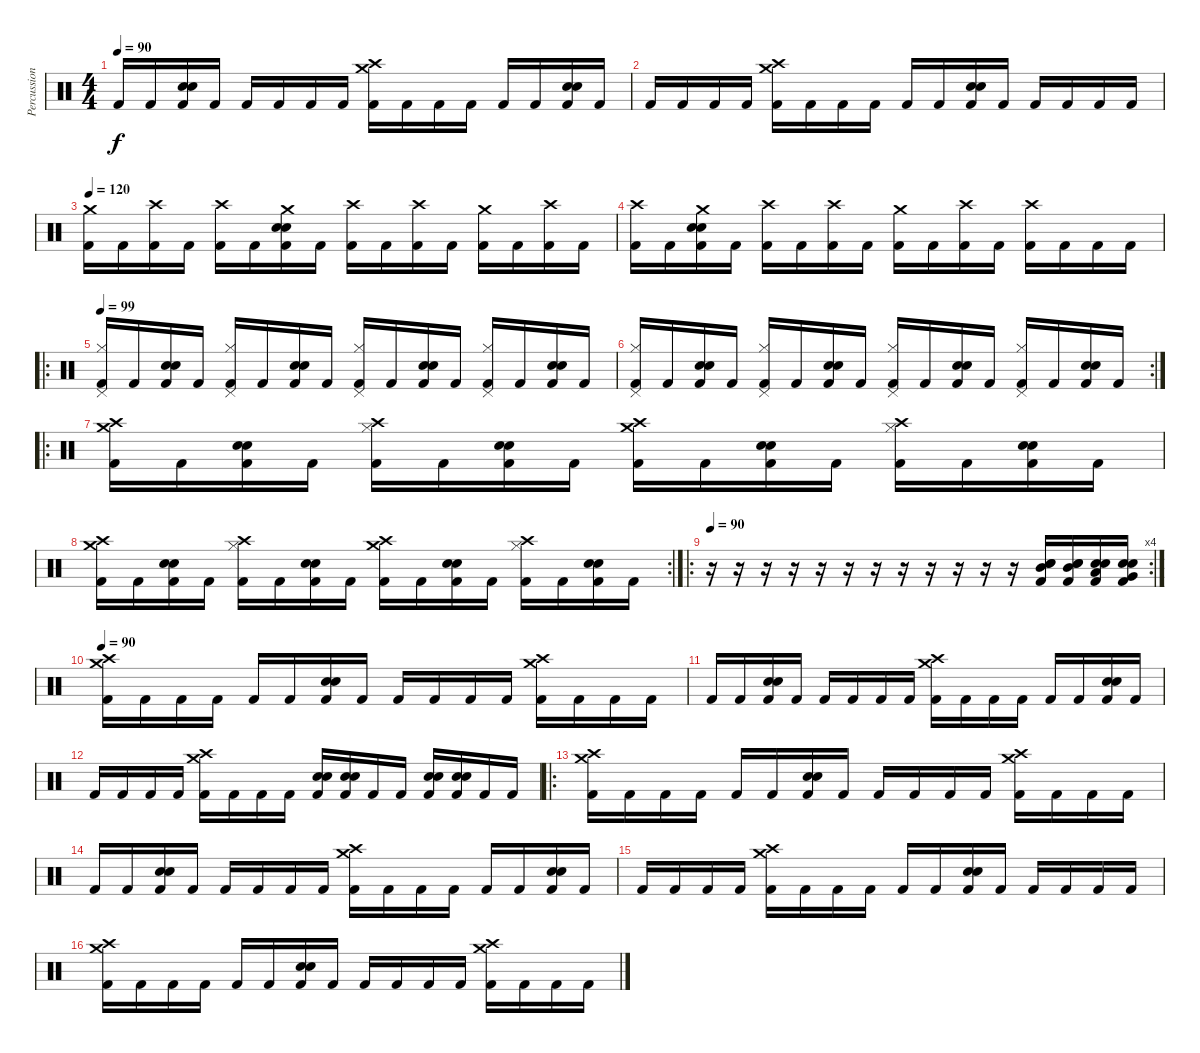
\track ("Percussions" "Percussion") {instrument percussion}
\staff {score}
\articulation defaults
\ts (4 4)
\tempo 90
\clef neutral
\ks c "Kick (hit) 2".16{dy f} "Kick (hit) 2".16
("Electric Snare (hit)" "Snare (hit) 2" "Kick (hit) 2").16 "Kick (hit) 2".16 "Kick (hit) 2".16 "Kick (hit) 2".16 "Kick (hit) 2".16 "Kick (hit) 2".16 ("Crash medium (hit)" "Crash high (hit)" "Kick (hit) 2").16 "Kick (hit) 2".16 "Kick (hit) 2".16 "Kick (hit) 2".16 "Kick (hit) 2".16 "Kick (hit) 2".16 ("Electric Snare (hit)" "Snare (hit) 2" "Kick (hit) 2").16 "Kick (hit) 2".16 |
"Kick (hit) 2".16 "Kick (hit) 2".16 "Kick (hit) 2".16 "Kick (hit) 2".16 ("Crash medium (hit)" "Crash high (hit)" "Kick (hit) 2").16 "Kick (hit) 2".16 "Kick (hit) 2".16 "Kick (hit) 2".16 "Kick (hit) 2".16 "Kick (hit) 2".16 ("Electric Snare (hit)" "Snare (hit) 2" "Kick (hit) 2").16 "Kick (hit) 2".16 "Kick (hit) 2".16 "Kick (hit) 2".16 "Kick (hit) 2".16 "Kick (hit) 2".16 |
\tempo 120
("Crash medium (hit)" "Kick (hit) 2").16 "Kick (hit) 2".16 ("Crash high (hit)" "Kick (hit) 2").16 "Kick (hit) 2".16 ("Crash high (hit)" "Kick (hit) 2").16 "Kick (hit) 2".16 ("Crash medium (hit)" "Electric Snare (hit)" "Snare (hit) 2" "Kick (hit) 2").16 "Kick (hit) 2".16 ("Crash high (hit)" "Kick (hit) 2").16 "Kick (hit) 2".16 ("Crash high (hit)" "Kick (hit) 2").16 "Kick (hit) 2".16 ("Crash medium (hit)" "Kick (hit) 2").16 "Kick (hit) 2".16 ("Crash high (hit)" "Kick (hit) 2").16 "Kick (hit) 2".16 |
("Crash high (hit)" "Kick (hit) 2").16 "Kick (hit) 2".16 ("Crash medium (hit)" "Electric Snare (hit)" "Snare (hit) 2" "Kick (hit) 2").16 "Kick (hit) 2".16 ("Crash high (hit)" "Kick (hit) 2").16 "Kick (hit) 2".16 ("Crash high (hit)" "Kick (hit) 2").16 "Kick (hit) 2".16 ("Crash medium (hit)" "Kick (hit) 2").16 "Kick (hit) 2".16 ("Crash high (hit)" "Kick (hit) 2").16 "Kick (hit) 2".16 ("Crash high (hit)" "Kick (hit) 2").16 "Kick (hit) 2".16 "Kick (hit) 2".16 "Kick (hit) 2".16 |
\ro
\tempo 99
("Hi-Hat (closed)" "Pedal Hi-Hat (hit)" "Kick (hit) 2").16 "Kick (hit) 2".16 ("Snare (hit) 2" "Electric Snare (hit)" "Kick (hit) 2").16 "Kick (hit) 2".16 ("Hi-Hat (closed)" "Pedal Hi-Hat (hit)" "Kick (hit) 2").16 "Kick (hit) 2".16 ("Snare (hit) 2" "Electric Snare (hit)" "Kick (hit) 2").16 "Kick (hit) 2".16 ("Hi-Hat (closed)" "Pedal Hi-Hat (hit)" "Kick (hit) 2").16 "Kick (hit) 2".16 ("Snare (hit) 2" "Electric Snare (hit)" "Kick (hit) 2").16 "Kick (hit) 2".16 ("Hi-Hat (closed)" "Pedal Hi-Hat (hit)" "Kick (hit) 2").16 "Kick (hit) 2".16 ("Snare (hit) 2" "Electric Snare (hit)" "Kick (hit) 2").16 "Kick (hit) 2".16 |
\rc 2
("Hi-Hat (closed)" "Pedal Hi-Hat (hit)" "Kick (hit) 2").16 "Kick (hit) 2".16 ("Snare (hit) 2" "Electric Snare (hit)" "Kick (hit) 2").16 "Kick (hit) 2".16 ("Hi-Hat (closed)" "Pedal Hi-Hat (hit)" "Kick (hit) 2").16 "Kick (hit) 2".16 ("Snare (hit) 2" "Electric Snare (hit)" "Kick (hit) 2").16 "Kick (hit) 2".16 ("Hi-Hat (closed)" "Pedal Hi-Hat (hit)" "Kick (hit) 2").16 "Kick (hit) 2".16 ("Snare (hit) 2" "Electric Snare (hit)" "Kick (hit) 2").16 "Kick (hit) 2".16 ("Hi-Hat (closed)" "Pedal Hi-Hat (hit)" "Kick (hit) 2").16 "Kick (hit) 2".16 ("Snare (hit) 2" "Electric Snare (hit)" "Kick (hit) 2").16 "Kick (hit) 2".16 |
\ro
("Crash medium (hit)" "Crash high (hit)" "Kick (hit) 2").16 "Kick (hit) 2".16 ("Snare (hit) 2" "Electric Snare (hit)" "Kick (hit) 2").16 "Kick (hit) 2".16 ("Hi-Hat (closed)" "Crash high (hit)" "Kick (hit) 2").16 "Kick (hit) 2".16 ("Snare (hit) 2" "Electric Snare (hit)" "Kick (hit) 2").16 "Kick (hit) 2".16 ("Crash medium (hit)" "Crash high (hit)" "Kick (hit) 2").16 "Kick (hit) 2".16 ("Snare (hit) 2" "Electric Snare (hit)" "Kick (hit) 2").16 "Kick (hit) 2".16 ("Hi-Hat (closed)" "Crash high (hit)" "Kick (hit) 2").16 "Kick (hit) 2".16 ("Snare (hit) 2" "Electric Snare (hit)" "Kick (hit) 2").16 "Kick (hit) 2".16 |
\rc 2
("Crash medium (hit)" "Crash high (hit)" "Kick (hit) 2").16 "Kick (hit) 2".16 ("Snare (hit) 2" "Electric Snare (hit)" "Kick (hit) 2").16 "Kick (hit) 2".16 ("Hi-Hat (closed)" "Crash high (hit)" "Kick (hit) 2").16 "Kick (hit) 2".16 ("Snare (hit) 2" "Electric Snare (hit)" "Kick (hit) 2").16 "Kick (hit) 2".16 ("Crash medium (hit)" "Crash high (hit)" "Kick (hit) 2").16 "Kick (hit) 2".16 ("Snare (hit) 2" "Electric Snare (hit)" "Kick (hit) 2").16 "Kick (hit) 2".16 ("Hi-Hat (closed)" "Crash high (hit)" "Kick (hit) 2").16 "Kick (hit) 2".16 ("Snare (hit) 2" "Electric Snare (hit)" "Kick (hit) 2").16 "Kick (hit) 2".16 |
\ro
\rc 4
\tempo 90
r.16 r.16 r.16 r.16 r.16 r.16 r.16 r.16 r.16 r.16 r.16 r.16 ("Kick (hit) 2" "Snare (hit) 2" "Mid Tom (hit)" "Electric Snare (hit)").16 ("Kick (hit) 2" "Snare (hit) 2" "Mid Tom (hit)" "Electric Snare (hit)").16 ("Kick (hit) 2" "Snare (hit) 2" "Low Tom (hit)" "Electric Snare (hit)").16 ("Kick (hit) 2" "Snare (hit) 2" "Very Low Tom (hit)" "Electric Snare (hit)").16 |
\tempo 90
("Crash medium (hit)" "Crash high (hit)" "Kick (hit) 2").16 "Kick (hit) 2".16 "Kick (hit) 2".16 "Kick (hit) 2".16 "Kick (hit) 2".16 "Kick (hit) 2".16 ("Electric Snare (hit)" "Snare (hit) 2" "Kick (hit) 2").16 "Kick (hit) 2".16 "Kick (hit) 2".16 "Kick (hit) 2".16 "Kick (hit) 2".16 "Kick (hit) 2".16 ("Crash medium (hit)" "Crash high (hit)" "Kick (hit) 2").16 "Kick (hit) 2".16 "Kick (hit) 2".16 "Kick (hit) 2".16 |
"Kick (hit) 2".16 "Kick (hit) 2".16 ("Electric Snare (hit)" "Snare (hit) 2" "Kick (hit) 2").16 "Kick (hit) 2".16 "Kick (hit) 2".16 "Kick (hit) 2".16 "Kick (hit) 2".16 "Kick (hit) 2".16 ("Crash medium (hit)" "Crash high (hit)" "Kick (hit) 2").16 "Kick (hit) 2".16 "Kick (hit) 2".16 "Kick (hit) 2".16 "Kick (hit) 2".16 "Kick (hit) 2".16 ("Electric Snare (hit)" "Snare (hit) 2" "Kick (hit) 2").16 "Kick (hit) 2".16 |
"Kick (hit) 2".16 "Kick (hit) 2".16 "Kick (hit) 2".16 "Kick (hit) 2".16 ("Crash medium (hit)" "Crash high (hit)" "Kick (hit) 2").16 "Kick (hit) 2".16 "Kick (hit) 2".16 "Kick (hit) 2".16 ("Electric Snare (hit)" "Snare (hit) 2" "Kick (hit) 2").16 ("Electric Snare (hit)" "Snare (hit) 2" "Kick (hit) 2").16 "Kick (hit) 2".16 "Kick (hit) 2".16 ("Electric Snare (hit)" "Snare (hit) 2" "Kick (hit) 2").16 ("Electric Snare (hit)" "Snare (hit) 2" "Kick (hit) 2").16 "Kick (hit) 2".16 "Kick (hit) 2".16 |
\ro
("Crash medium (hit)" "Crash high (hit)" "Kick (hit) 2").16 "Kick (hit) 2".16 "Kick (hit) 2".16 "Kick (hit) 2".16 "Kick (hit) 2".16 "Kick (hit) 2".16 ("Electric Snare (hit)" "Snare (hit) 2" "Kick (hit) 2").16 "Kick (hit) 2".16 "Kick (hit) 2".16 "Kick (hit) 2".16 "Kick (hit) 2".16 "Kick (hit) 2".16 ("Crash medium (hit)" "Crash high (hit)" "Kick (hit) 2").16 "Kick (hit) 2".16 "Kick (hit) 2".16 "Kick (hit) 2".16 |
"Kick (hit) 2".16 "Kick (hit) 2".16 ("Electric Snare (hit)" "Snare (hit) 2" "Kick (hit) 2").16 "Kick (hit) 2".16 "Kick (hit) 2".16 "Kick (hit) 2".16 "Kick (hit) 2".16 "Kick (hit) 2".16 ("Crash medium (hit)" "Crash high (hit)" "Kick (hit) 2").16 "Kick (hit) 2".16 "Kick (hit) 2".16 "Kick (hit) 2".16 "Kick (hit) 2".16 "Kick (hit) 2".16 ("Electric Snare (hit)" "Snare (hit) 2" "Kick (hit) 2").16 "Kick (hit) 2".16 |
"Kick (hit) 2".16 "Kick (hit) 2".16 "Kick (hit) 2".16 "Kick (hit) 2".16 ("Crash medium (hit)" "Crash high (hit)" "Kick (hit) 2").16 "Kick (hit) 2".16 "Kick (hit) 2".16 "Kick (hit) 2".16 "Kick (hit) 2".16 "Kick (hit) 2".16 ("Electric Snare (hit)" "Snare (hit) 2" "Kick (hit) 2").16 "Kick (hit) 2".16 "Kick (hit) 2".16 "Kick (hit) 2".16 "Kick (hit) 2".16 "Kick (hit) 2".16 |
("Crash medium (hit)" "Crash high (hit)" "Kick (hit) 2").16 "Kick (hit) 2".16 "Kick (hit) 2".16 "Kick (hit) 2".16 "Kick (hit) 2".16 "Kick (hit) 2".16 ("Electric Snare (hit)" "Snare (hit) 2" "Kick (hit) 2").16 "Kick (hit) 2".16 "Kick (hit) 2".16 "Kick (hit) 2".16 "Kick (hit) 2".16 "Kick (hit) 2".16 ("Crash medium (hit)" "Crash high (hit)" "Kick (hit) 2").16 "Kick (hit) 2".16 "Kick (hit) 2".16 "Kick (hit) 2".16
